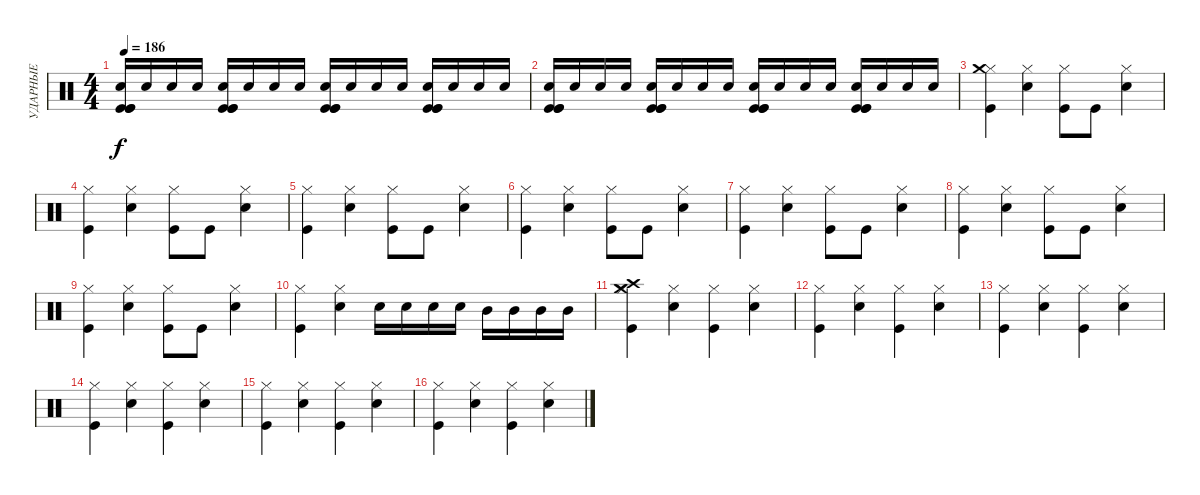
\track ("УДАРНЫЕ" "УДАРНЫЕ") {instrument percussion}
\staff {score}
\articulation defaults
\ts (4 4)
\tempo 186
\clef neutral
\ks c
("Electric Snare (hit)" "Kick (hit)" "Kick (hit)" "Kick (hit)").16{dy f} "Electric Snare (hit)".16 "Electric Snare (hit)".16 "Electric Snare (hit)".16 ("Electric Snare (hit)" "Kick (hit)" "Kick (hit)" "Kick (hit)").16 "Electric Snare (hit)".16 "Electric Snare (hit)".16 "Electric Snare (hit)".16 ("Electric Snare (hit)" "Kick (hit)" "Kick (hit)" "Kick (hit)").16 "Electric Snare (hit)".16 "Electric Snare (hit)".16 "Electric Snare (hit)".16 ("Electric Snare (hit)" "Kick (hit)" "Kick (hit)" "Kick (hit)").16 "Electric Snare (hit)".16 "Electric Snare (hit)".16 "Electric Snare (hit)".16 |
("Electric Snare (hit)" "Kick (hit)" "Kick (hit)" "Kick (hit)").16 "Electric Snare (hit)".16 "Electric Snare (hit)".16 "Electric Snare (hit)".16 ("Electric Snare (hit)" "Kick (hit)" "Kick (hit)" "Kick (hit)").16 "Electric Snare (hit)".16 "Electric Snare (hit)".16 "Electric Snare (hit)".16 ("Electric Snare (hit)" "Kick (hit)" "Kick (hit)" "Kick (hit)").16 "Electric Snare (hit)".16 "Electric Snare (hit)".16 "Electric Snare (hit)".16 ("Electric Snare (hit)" "Kick (hit)" "Kick (hit)" "Kick (hit)").16 "Electric Snare (hit)".16 "Electric Snare (hit)".16 "Electric Snare (hit)".16 |
("Hi-Hat (closed)" "Kick (hit)" "Crash medium (hit)").4 ("Hi-Hat (closed)" "Electric Snare (hit)").4 ("Hi-Hat (closed)" "Kick (hit)").8 "Kick (hit)".8 ("Hi-Hat (closed)" "Electric Snare (hit)").4 |
("Hi-Hat (closed)" "Kick (hit)").4 ("Hi-Hat (closed)" "Electric Snare (hit)").4 ("Hi-Hat (closed)" "Kick (hit)").8 "Kick (hit)".8 ("Hi-Hat (closed)" "Electric Snare (hit)").4 |
("Hi-Hat (closed)" "Kick (hit)").4 ("Hi-Hat (closed)" "Electric Snare (hit)").4 ("Hi-Hat (closed)" "Kick (hit)").8 "Kick (hit)".8 ("Hi-Hat (closed)" "Electric Snare (hit)").4 |
("Hi-Hat (closed)" "Kick (hit)").4 ("Hi-Hat (closed)" "Electric Snare (hit)").4 ("Hi-Hat (closed)" "Kick (hit)").8 "Kick (hit)".8 ("Hi-Hat (closed)" "Electric Snare (hit)").4 |
("Hi-Hat (closed)" "Kick (hit)").4 ("Hi-Hat (closed)" "Electric Snare (hit)").4 ("Hi-Hat (closed)" "Kick (hit)").8 "Kick (hit)".8 ("Hi-Hat (closed)" "Electric Snare (hit)").4 |
("Hi-Hat (closed)" "Kick (hit)").4 ("Hi-Hat (closed)" "Electric Snare (hit)").4 ("Hi-Hat (closed)" "Kick (hit)").8 "Kick (hit)".8 ("Hi-Hat (closed)" "Electric Snare (hit)").4 |
("Hi-Hat (closed)" "Kick (hit)").4 ("Hi-Hat (closed)" "Electric Snare (hit)").4 ("Hi-Hat (closed)" "Kick (hit)").8 "Kick (hit)".8 ("Hi-Hat (closed)" "Electric Snare (hit)").4 |
("Hi-Hat (closed)" "Kick (hit)").4 ("Hi-Hat (closed)" "Electric Snare (hit)").4 "Electric Snare (hit)".16 "Electric Snare (hit)".16 "Electric Snare (hit)".16 "Electric Snare (hit)".16 "Mid Tom (hit)".16 "Mid Tom (hit)".16 "Mid Tom (hit)".16 "Mid Tom (hit)".16 |
("Hi-Hat (closed)" "Kick (hit)" "Crash high (hit)" "Crash medium (hit)").4 ("Hi-Hat (closed)" "Electric Snare (hit)").4 ("Hi-Hat (closed)" "Kick (hit)").4 ("Hi-Hat (closed)" "Electric Snare (hit)").4 |
("Hi-Hat (closed)" "Kick (hit)").4 ("Hi-Hat (closed)" "Electric Snare (hit)").4 ("Hi-Hat (closed)" "Kick (hit)").4 ("Hi-Hat (closed)" "Electric Snare (hit)").4 |
("Hi-Hat (closed)" "Kick (hit)").4 ("Hi-Hat (closed)" "Electric Snare (hit)").4 ("Hi-Hat (closed)" "Kick (hit)").4 ("Hi-Hat (closed)" "Electric Snare (hit)").4 |
("Hi-Hat (closed)" "Kick (hit)").4 ("Hi-Hat (closed)" "Electric Snare (hit)").4 ("Hi-Hat (closed)" "Kick (hit)").4 ("Hi-Hat (closed)" "Electric Snare (hit)").4 |
("Hi-Hat (closed)" "Kick (hit)").4 ("Hi-Hat (closed)" "Electric Snare (hit)").4 ("Hi-Hat (closed)" "Kick (hit)").4 ("Hi-Hat (closed)" "Electric Snare (hit)").4 |
("Hi-Hat (closed)" "Kick (hit)").4 ("Hi-Hat (closed)" "Electric Snare (hit)").4 ("Hi-Hat (closed)" "Kick (hit)").4 ("Hi-Hat (closed)" "Electric Snare (hit)").4
